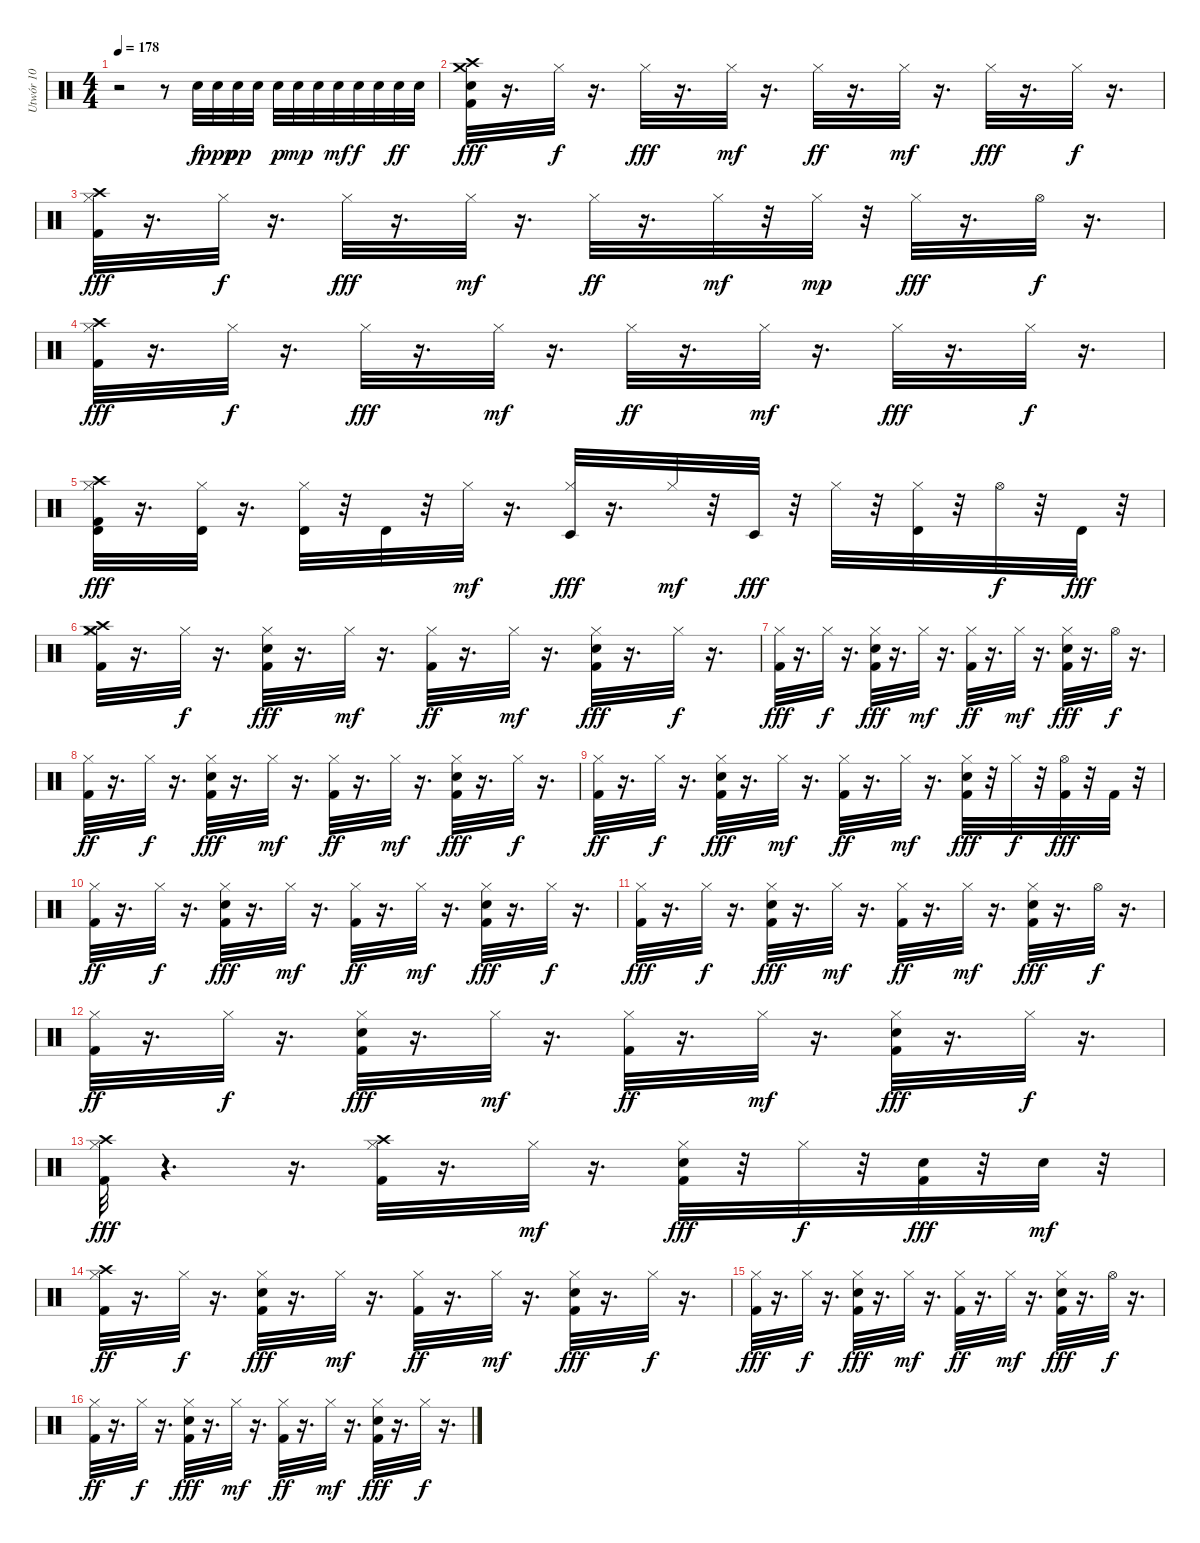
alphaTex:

\track ("Utwór 10" "Utwór 10") {instrument percussion}
\staff {score}
\articulation defaults
\ts (4 4)
\tempo 178
\clef neutral
\ks c
r.2{dy f} r.8 "Hand Clap (hit)".32 "Hand Clap (hit)".32{dy ppp} "Hand Clap (hit)".32{dy pp} "Hand Clap (hit)".32 "Hand Clap (hit)".32{dy p} "Hand Clap (hit)".32{dy mp} "Hand Clap (hit)".32 "Hand Clap (hit)".32{dy mf} "Hand Clap (hit)".32{dy f} "Hand Clap (hit)".32 "Hand Clap (hit)".32{dy ff} "Hand Clap (hit)".32 |
("Kick (hit) 2" "Crash medium (hit)" "Hand Clap (hit)" "Crash high (hit)").32{dy fff} r.16{d} "Hi-Hat (closed)".32{dy f} r.16{d} "Hi-Hat (closed)".32{dy fff} r.16{d} "Hi-Hat (closed)".32{dy mf} r.16{d} "Hi-Hat (closed)".32{dy ff} r.16{d} "Hi-Hat (closed)".32{dy mf} r.16{d} "Hi-Hat (closed)".32{dy fff} r.16{d} "Hi-Hat (closed)".32{dy f} r.16{d} |
("Kick (hit) 2" "Hi-Hat (closed)" "Crash high (hit)").32{dy fff} r.16{d} "Hi-Hat (closed)".32{dy f} r.16{d} "Hi-Hat (closed)".32{dy fff} r.16{d} "Hi-Hat (closed)".32{dy mf} r.16{d} "Hi-Hat (closed)".32{dy ff} r.16{d} "Hi-Hat (closed)".32{dy mf} r.32 "Hi-Hat (closed)".32{dy mp} r.32 "Hi-Hat (closed)".32{dy fff} r.16{d} "Hi-Hat (open)".32{dy f} r.16{d} |
("Kick (hit) 2" "Hi-Hat (closed)" "Crash high (hit)").32{dy fff} r.16{d} "Hi-Hat (closed)".32{dy f} r.16{d} "Hi-Hat (closed)".32{dy fff} r.16{d} "Hi-Hat (closed)".32{dy mf} r.16{d} "Hi-Hat (closed)".32{dy ff} r.16{d} "Hi-Hat (closed)".32{dy mf} r.16{d} "Hi-Hat (closed)".32{dy fff} r.16{d} "Hi-Hat (closed)".32{dy f} r.16{d} |
("Kick (hit) 2" "Hi-Hat (closed)" "Timbale high (hit)" "Crash high (hit)").32{dy fff} r.16{d} ("Hi-Hat (closed)" "Timbale high (hit)").32 r.16{d} ("Hi-Hat (closed)" "Timbale high (hit)").32 r.32 "Timbale high (hit)".32 r.32 "Hi-Hat (closed)".32{dy mf} r.16{d} ("Hi-Hat (closed)" "Timbale low (hit)").32{dy fff} r.16{d} "Hi-Hat (closed)".32{dy mf} r.32 "Timbale low (hit)".32{dy fff} r.32 "Hi-Hat (closed)".32 r.32 ("Hi-Hat (closed)" "Timbale high (hit)").32 r.32 "Hi-Hat (open)".32{dy f} r.32 "Timbale high (hit)".32{dy fff} r.32 |
("Kick (hit) 2" "Hi-Hat (closed)" "Crash high (hit)" "Crash medium (hit)").32 r.16{d} "Hi-Hat (closed)".32{dy f} r.16{d} ("Kick (hit) 2" "Electric Snare (hit)" "Hi-Hat (closed)").32{dy fff} r.16{d} "Hi-Hat (closed)".32{dy mf} r.16{d} ("Kick (hit) 2" "Hi-Hat (closed)").32{dy ff} r.16{d} "Hi-Hat (closed)".32{dy mf} r.16{d} ("Kick (hit) 2" "Electric Snare (hit)" "Hi-Hat (closed)").32{dy fff} r.16{d} "Hi-Hat (closed)".32{dy f} r.16{d} |
("Kick (hit) 2" "Hi-Hat (closed)").32{dy fff} r.16{d} "Hi-Hat (closed)".32{dy f} r.16{d} ("Kick (hit) 2" "Electric Snare (hit)" "Hi-Hat (closed)").32{dy fff} r.16{d} "Hi-Hat (closed)".32{dy mf} r.16{d} ("Kick (hit) 2" "Hi-Hat (closed)").32{dy ff} r.16{d} "Hi-Hat (closed)".32{dy mf} r.16{d} ("Kick (hit) 2" "Electric Snare (hit)" "Hi-Hat (closed)").32{dy fff} r.16{d} "Hi-Hat (open)".32{dy f} r.16{d} |
("Kick (hit) 2" "Hi-Hat (closed)").32{dy ff} r.16{d} "Hi-Hat (closed)".32{dy f} r.16{d} ("Kick (hit) 2" "Electric Snare (hit)" "Hi-Hat (closed)").32{dy fff} r.16{d} "Hi-Hat (closed)".32{dy mf} r.16{d} ("Kick (hit) 2" "Hi-Hat (closed)").32{dy ff} r.16{d} "Hi-Hat (closed)".32{dy mf} r.16{d} ("Kick (hit) 2" "Electric Snare (hit)" "Hi-Hat (closed)").32{dy fff} r.16{d} "Hi-Hat (closed)".32{dy f} r.16{d} |
("Kick (hit) 2" "Hi-Hat (closed)").32{dy ff} r.16{d} "Hi-Hat (closed)".32{dy f} r.16{d} ("Kick (hit) 2" "Electric Snare (hit)" "Hi-Hat (closed)").32{dy fff} r.16{d} "Hi-Hat (closed)".32{dy mf} r.16{d} ("Kick (hit) 2" "Hi-Hat (closed)").32{dy ff} r.16{d} "Hi-Hat (closed)".32{dy mf} r.16{d} ("Kick (hit) 2" "Electric Snare (hit)" "Hi-Hat (closed)").32{dy fff} r.32 "Hi-Hat (closed)".32{dy f} r.32 ("Hi-Hat (open)" "Kick (hit) 2").32{dy fff} r.32 "Kick (hit) 2".32 r.32 |
("Kick (hit) 2" "Hi-Hat (closed)").32{dy ff} r.16{d} "Hi-Hat (closed)".32{dy f} r.16{d} ("Kick (hit) 2" "Electric Snare (hit)" "Hi-Hat (closed)").32{dy fff} r.16{d} "Hi-Hat (closed)".32{dy mf} r.16{d} ("Kick (hit) 2" "Hi-Hat (closed)").32{dy ff} r.16{d} "Hi-Hat (closed)".32{dy mf} r.16{d} ("Kick (hit) 2" "Electric Snare (hit)" "Hi-Hat (closed)").32{dy fff} r.16{d} "Hi-Hat (closed)".32{dy f} r.16{d} |
("Kick (hit) 2" "Hi-Hat (closed)").32{dy fff} r.16{d} "Hi-Hat (closed)".32{dy f} r.16{d} ("Kick (hit) 2" "Electric Snare (hit)" "Hi-Hat (closed)").32{dy fff} r.16{d} "Hi-Hat (closed)".32{dy mf} r.16{d} ("Kick (hit) 2" "Hi-Hat (closed)").32{dy ff} r.16{d} "Hi-Hat (closed)".32{dy mf} r.16{d} ("Kick (hit) 2" "Electric Snare (hit)" "Hi-Hat (closed)").32{dy fff} r.16{d} "Hi-Hat (open)".32{dy f} r.16{d} |
("Kick (hit) 2" "Hi-Hat (closed)").32{dy ff} r.16{d} "Hi-Hat (closed)".32{dy f} r.16{d} ("Kick (hit) 2" "Electric Snare (hit)" "Hi-Hat (closed)").32{dy fff} r.16{d} "Hi-Hat (closed)".32{dy mf} r.16{d} ("Kick (hit) 2" "Hi-Hat (closed)").32{dy ff} r.16{d} "Hi-Hat (closed)".32{dy mf} r.16{d} ("Kick (hit) 2" "Electric Snare (hit)" "Hi-Hat (closed)").32{dy fff} r.16{d} "Hi-Hat (closed)".32{dy f} r.16{d} |
("Kick (hit) 2" "Hi-Hat (closed)" "Crash high (hit)").32{dy fff} r.4{d} r.16{d} ("Kick (hit) 2" "Hi-Hat (closed)" "Crash high (hit)").32 r.16{d} "Hi-Hat (closed)".32{dy mf} r.16{d} ("Kick (hit) 2" "Electric Snare (hit)" "Hi-Hat (closed)").32{dy fff} r.32 "Hi-Hat (closed)".32{dy f} r.32 ("Electric Snare (hit)" "Kick (hit) 2").32{dy fff} r.32 "Electric Snare (hit)".32{dy mf} r.32 |
("Crash high (hit)" "Kick (hit) 2" "Hi-Hat (closed)").32{dy ff} r.16{d} "Hi-Hat (closed)".32{dy f} r.16{d} ("Kick (hit) 2" "Electric Snare (hit)" "Hi-Hat (closed)").32{dy fff} r.16{d} "Hi-Hat (closed)".32{dy mf} r.16{d} ("Kick (hit) 2" "Hi-Hat (closed)").32{dy ff} r.16{d} "Hi-Hat (closed)".32{dy mf} r.16{d} ("Kick (hit) 2" "Electric Snare (hit)" "Hi-Hat (closed)").32{dy fff} r.16{d} "Hi-Hat (closed)".32{dy f} r.16{d} |
("Kick (hit) 2" "Hi-Hat (closed)").32{dy fff} r.16{d} "Hi-Hat (closed)".32{dy f} r.16{d} ("Kick (hit) 2" "Electric Snare (hit)" "Hi-Hat (closed)").32{dy fff} r.16{d} "Hi-Hat (closed)".32{dy mf} r.16{d} ("Kick (hit) 2" "Hi-Hat (closed)").32{dy ff} r.16{d} "Hi-Hat (closed)".32{dy mf} r.16{d} ("Kick (hit) 2" "Electric Snare (hit)" "Hi-Hat (closed)").32{dy fff} r.16{d} "Hi-Hat (open)".32{dy f} r.16{d} |
("Kick (hit) 2" "Hi-Hat (closed)").32{dy ff} r.16{d} "Hi-Hat (closed)".32{dy f} r.16{d} ("Kick (hit) 2" "Electric Snare (hit)" "Hi-Hat (closed)").32{dy fff} r.16{d} "Hi-Hat (closed)".32{dy mf} r.16{d} ("Kick (hit) 2" "Hi-Hat (closed)").32{dy ff} r.16{d} "Hi-Hat (closed)".32{dy mf} r.16{d} ("Kick (hit) 2" "Electric Snare (hit)" "Hi-Hat (closed)").32{dy fff} r.16{d} "Hi-Hat (closed)".32{dy f} r.16{d}
